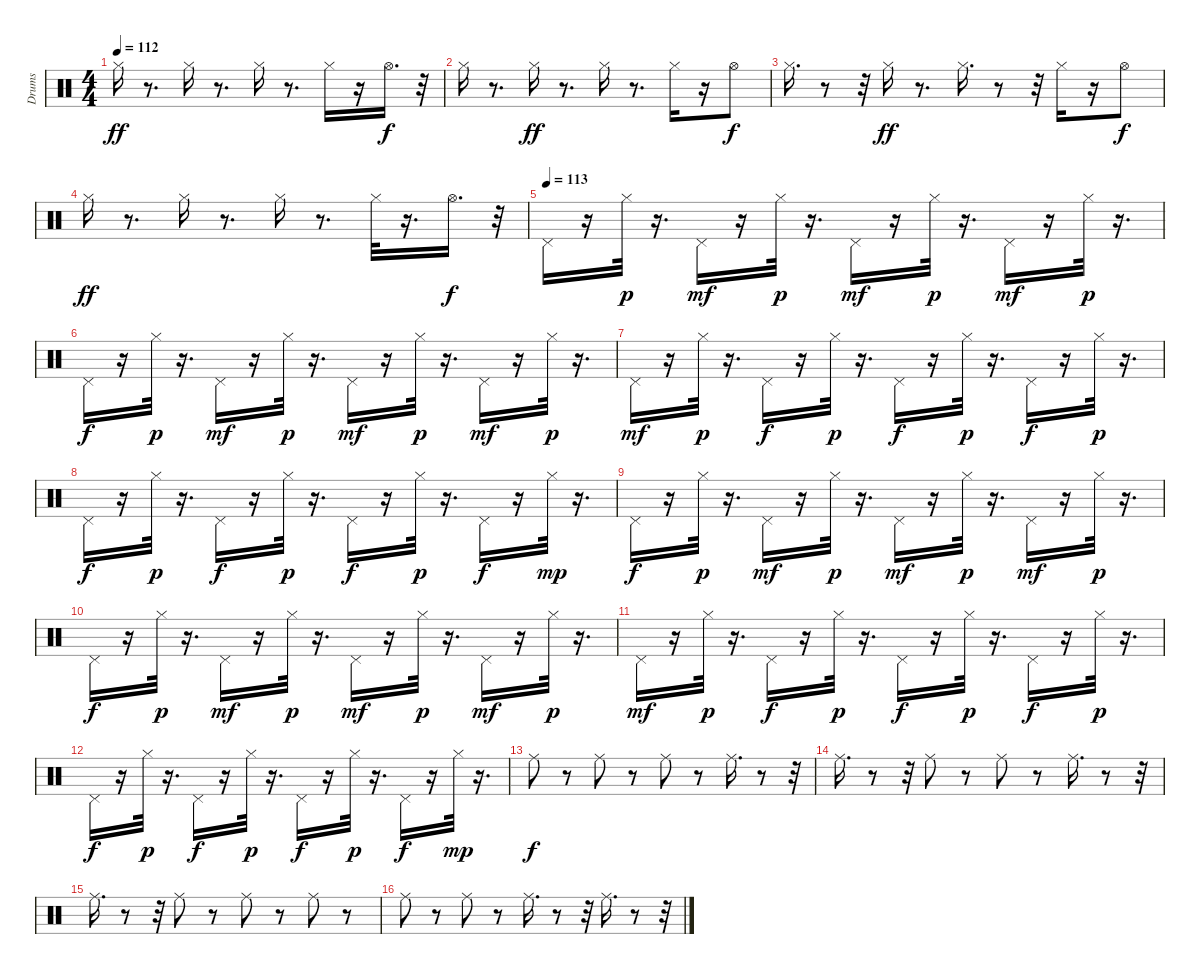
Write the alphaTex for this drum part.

\track ("Drums" "Drums") {instrument percussion}
\staff {score}
\articulation defaults
\ts (4 4)
\tempo 112
\clef neutral
\ks c "Hi-Hat (closed)".16{dy ff}
r.8{d} "Hi-Hat (closed)".16 r.8{d} "Hi-Hat (closed)".16 r.8{d} "Hi-Hat (closed)".16 r.16 "Hi-Hat (open)".16{d dy f} r.32 |
"Hi-Hat (closed)".16 r.8{d} "Hi-Hat (closed)".16{dy ff} r.8{d} "Hi-Hat (closed)".16 r.8{d} "Hi-Hat (closed)".16 r.16 "Hi-Hat (open)".8{dy f} |
"Hi-Hat (closed)".16{d} r.8 r.32 "Hi-Hat (closed)".16{dy ff} r.8{d} "Hi-Hat (closed)".16{d} r.8 r.32 "Hi-Hat (closed)".16 r.16 "Hi-Hat (open)".8{dy f} |
"Hi-Hat (closed)".16{dy ff} r.8{d} "Hi-Hat (closed)".16 r.8{d} "Hi-Hat (closed)".16 r.8{d} "Hi-Hat (closed)".32 r.16{d} "Hi-Hat (open)".16{d dy f} r.32 |
\tempo (113)
"Pedal Hi-Hat (hit)".16 r.16 "Hi-Hat (closed)".32{dy p} r.16{d} "Pedal Hi-Hat (hit)".16{dy mf} r.16 "Hi-Hat (closed)".32{dy p} r.16{d} "Pedal Hi-Hat (hit)".16{dy mf} r.16 "Hi-Hat (closed)".32{dy p} r.16{d} "Pedal Hi-Hat (hit)".16{dy mf} r.16 "Hi-Hat (closed)".32{dy p} r.16{d} |
"Pedal Hi-Hat (hit)".16{dy f} r.16 "Hi-Hat (closed)".32{dy p} r.16{d} "Pedal Hi-Hat (hit)".16{dy mf} r.16 "Hi-Hat (closed)".32{dy p} r.16{d} "Pedal Hi-Hat (hit)".16{dy mf} r.16 "Hi-Hat (closed)".32{dy p} r.16{d} "Pedal Hi-Hat (hit)".16{dy mf} r.16 "Hi-Hat (closed)".32{dy p} r.16{d} |
"Pedal Hi-Hat (hit)".16{dy mf} r.16 "Hi-Hat (closed)".32{dy p} r.16{d} "Pedal Hi-Hat (hit)".16{dy f} r.16 "Hi-Hat (closed)".32{dy p} r.16{d} "Pedal Hi-Hat (hit)".16{dy f} r.16 "Hi-Hat (closed)".32{dy p} r.16{d} "Pedal Hi-Hat (hit)".16{dy f} r.16 "Hi-Hat (closed)".32{dy p} r.16{d} |
"Pedal Hi-Hat (hit)".16{dy f} r.16 "Hi-Hat (closed)".32{dy p} r.16{d} "Pedal Hi-Hat (hit)".16{dy f} r.16 "Hi-Hat (closed)".32{dy p} r.16{d} "Pedal Hi-Hat (hit)".16{dy f} r.16 "Hi-Hat (closed)".32{dy p} r.16{d} "Pedal Hi-Hat (hit)".16{dy f} r.16 "Hi-Hat (closed)".32{dy mp} r.16{d} |
"Pedal Hi-Hat (hit)".16{dy f} r.16 "Hi-Hat (closed)".32{dy p} r.16{d} "Pedal Hi-Hat (hit)".16{dy mf} r.16 "Hi-Hat (closed)".32{dy p} r.16{d} "Pedal Hi-Hat (hit)".16{dy mf} r.16 "Hi-Hat (closed)".32{dy p} r.16{d} "Pedal Hi-Hat (hit)".16{dy mf} r.16 "Hi-Hat (closed)".32{dy p} r.16{d} |
"Pedal Hi-Hat (hit)".16{dy f} r.16 "Hi-Hat (closed)".32{dy p} r.16{d} "Pedal Hi-Hat (hit)".16{dy mf} r.16 "Hi-Hat (closed)".32{dy p} r.16{d} "Pedal Hi-Hat (hit)".16{dy mf} r.16 "Hi-Hat (closed)".32{dy p} r.16{d} "Pedal Hi-Hat (hit)".16{dy mf} r.16 "Hi-Hat (closed)".32{dy p} r.16{d} |
"Pedal Hi-Hat (hit)".16{dy mf} r.16 "Hi-Hat (closed)".32{dy p} r.16{d} "Pedal Hi-Hat (hit)".16{dy f} r.16 "Hi-Hat (closed)".32{dy p} r.16{d} "Pedal Hi-Hat (hit)".16{dy f} r.16 "Hi-Hat (closed)".32{dy p} r.16{d} "Pedal Hi-Hat (hit)".16{dy f} r.16 "Hi-Hat (closed)".32{dy p} r.16{d} |
"Pedal Hi-Hat (hit)".16{dy f} r.16 "Hi-Hat (closed)".32{dy p} r.16{d} "Pedal Hi-Hat (hit)".16{dy f} r.16 "Hi-Hat (closed)".32{dy p} r.16{d} "Pedal Hi-Hat (hit)".16{dy f} r.16 "Hi-Hat (closed)".32{dy p} r.16{d} "Pedal Hi-Hat (hit)".16{dy f} r.16 "Hi-Hat (closed)".32{dy mp} r.16{d} |
"Ride (middle)".8{dy f} r.8 "Ride (middle)".8 r.8 "Ride (middle)".8 r.8 "Ride (middle)".16{d} r.8 r.32 |
"Ride (middle)".16{d} r.8 r.32 "Ride (middle)".8 r.8 "Ride (middle)".8 r.8 "Ride (middle)".16{d} r.8 r.32 |
"Ride (middle)".16{d} r.8 r.32 "Ride (middle)".8 r.8 "Ride (middle)".8 r.8 "Ride (middle)".8 r.8 |
"Ride (middle)".8 r.8 "Ride (middle)".8 r.8 "Ride (middle)".16{d} r.8 r.32 "Ride (middle)".16{d} r.8 r.32
